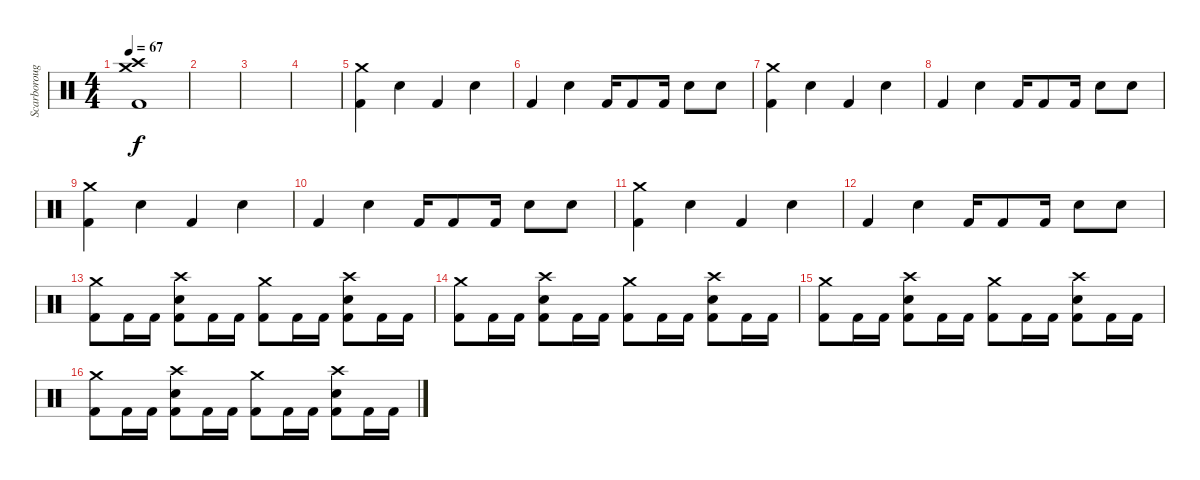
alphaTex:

\track ("Scarborough" "Scarboroug") {instrument percussion}
\staff {score}
\articulation defaults
\ts (4 4)
\tempo 67
\clef neutral
\ks c
("Crash medium (hit)" "Crash high (hit)" "Kick (hit) 2").1{dy f} |
|
|
|
("Crash medium (hit)" "Kick (hit) 2").4 "Snare (hit) 2".4 "Kick (hit) 2".4 "Snare (hit) 2".4 |
"Kick (hit) 2".4 "Snare (hit) 2".4 "Kick (hit) 2".16 "Kick (hit) 2".8 "Kick (hit) 2".16 "Snare (hit) 2".8 "Snare (hit) 2".8 |
("Crash medium (hit)" "Kick (hit) 2").4 "Snare (hit) 2".4 "Kick (hit) 2".4 "Snare (hit) 2".4 |
"Kick (hit) 2".4 "Snare (hit) 2".4 "Kick (hit) 2".16 "Kick (hit) 2".8 "Kick (hit) 2".16 "Snare (hit) 2".8 "Snare (hit) 2".8 |
("Crash medium (hit)" "Kick (hit) 2").4 "Snare (hit) 2".4 "Kick (hit) 2".4 "Snare (hit) 2".4 |
"Kick (hit) 2".4 "Snare (hit) 2".4 "Kick (hit) 2".16 "Kick (hit) 2".8 "Kick (hit) 2".16 "Snare (hit) 2".8 "Snare (hit) 2".8 |
("Crash medium (hit)" "Kick (hit) 2").4 "Snare (hit) 2".4 "Kick (hit) 2".4 "Snare (hit) 2".4 |
"Kick (hit) 2".4 "Snare (hit) 2".4 "Kick (hit) 2".16 "Kick (hit) 2".8 "Kick (hit) 2".16 "Snare (hit) 2".8 "Snare (hit) 2".8 |
("Crash medium (hit)" "Kick (hit) 2").8 "Kick (hit) 2".16 "Kick (hit) 2".16 ("Crash high (hit)" "Kick (hit) 2" "Snare (hit) 2").8 "Kick (hit) 2".16 "Kick (hit) 2".16 ("Crash medium (hit)" "Kick (hit) 2").8 "Kick (hit) 2".16 "Kick (hit) 2".16 ("Crash high (hit)" "Kick (hit) 2" "Snare (hit) 2").8 "Kick (hit) 2".16 "Kick (hit) 2".16 |
("Crash medium (hit)" "Kick (hit) 2").8 "Kick (hit) 2".16 "Kick (hit) 2".16 ("Crash high (hit)" "Kick (hit) 2" "Snare (hit) 2").8 "Kick (hit) 2".16 "Kick (hit) 2".16 ("Crash medium (hit)" "Kick (hit) 2").8 "Kick (hit) 2".16 "Kick (hit) 2".16 ("Crash high (hit)" "Kick (hit) 2" "Snare (hit) 2").8 "Kick (hit) 2".16 "Kick (hit) 2".16 |
("Crash medium (hit)" "Kick (hit) 2").8 "Kick (hit) 2".16 "Kick (hit) 2".16 ("Crash high (hit)" "Kick (hit) 2" "Snare (hit) 2").8 "Kick (hit) 2".16 "Kick (hit) 2".16 ("Crash medium (hit)" "Kick (hit) 2").8 "Kick (hit) 2".16 "Kick (hit) 2".16 ("Crash high (hit)" "Kick (hit) 2" "Snare (hit) 2").8 "Kick (hit) 2".16 "Kick (hit) 2".16 |
("Crash medium (hit)" "Kick (hit) 2").8 "Kick (hit) 2".16 "Kick (hit) 2".16 ("Crash high (hit)" "Kick (hit) 2" "Snare (hit) 2").8 "Kick (hit) 2".16 "Kick (hit) 2".16 ("Crash medium (hit)" "Kick (hit) 2").8 "Kick (hit) 2".16 "Kick (hit) 2".16 ("Crash high (hit)" "Kick (hit) 2" "Snare (hit) 2").8 "Kick (hit) 2".16 "Kick (hit) 2".16
